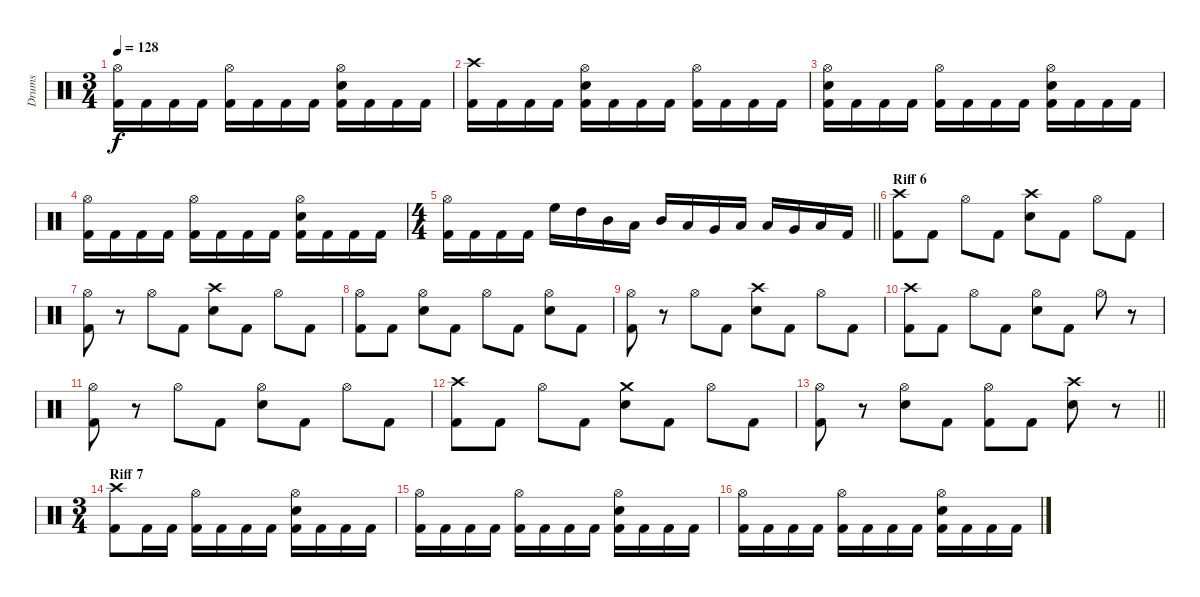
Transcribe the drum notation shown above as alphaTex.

\track ("Drums" "Drums") {instrument percussion}
\staff {score}
\articulation defaults
\ts (3 4)
\tempo 128
\clef neutral
\ks c
("Hi-Hat (open)" "Kick (hit) 2").16{dy f} "Kick (hit) 2".16 "Kick (hit) 2".16 "Kick (hit) 2".16 ("Hi-Hat (open)" "Kick (hit) 2").16 "Kick (hit) 2".16 "Kick (hit) 2".16 "Kick (hit) 2".16 ("Hi-Hat (open)" "Electric Snare (hit)" "Kick (hit) 2").16 "Kick (hit) 2".16 "Kick (hit) 2".16 "Kick (hit) 2".16 |
("Crash high (hit)" "Kick (hit) 2").16 "Kick (hit) 2".16 "Kick (hit) 2".16 "Kick (hit) 2".16 ("Hi-Hat (open)" "Electric Snare (hit)" "Kick (hit) 2").16 "Kick (hit) 2".16 "Kick (hit) 2".16 "Kick (hit) 2".16 ("Hi-Hat (open)" "Kick (hit) 2").16 "Kick (hit) 2".16 "Kick (hit) 2".16 "Kick (hit) 2".16 |
("Hi-Hat (open)" "Electric Snare (hit)" "Kick (hit) 2").16 "Kick (hit) 2".16 "Kick (hit) 2".16 "Kick (hit) 2".16 ("Hi-Hat (open)" "Kick (hit) 2").16 "Kick (hit) 2".16 "Kick (hit) 2".16 "Kick (hit) 2".16 ("Hi-Hat (open)" "Electric Snare (hit)" "Kick (hit) 2").16 "Kick (hit) 2".16 "Kick (hit) 2".16 "Kick (hit) 2".16 |
("Hi-Hat (open)" "Kick (hit) 2").16 "Kick (hit) 2".16 "Kick (hit) 2".16 "Kick (hit) 2".16 ("Hi-Hat (open)" "Kick (hit) 2").16 "Kick (hit) 2".16 "Kick (hit) 2".16 "Kick (hit) 2".16 ("Hi-Hat (open)" "Electric Snare (hit)" "Kick (hit) 2").16 "Kick (hit) 2".16 "Kick (hit) 2".16 "Kick (hit) 2".16 |
\ts (4 4)
\barLineRight lightlight
("Hi-Hat (open)" "Kick (hit) 2").16 "Kick (hit) 2".16 "Kick (hit) 2".16 "Kick (hit) 2".16 "High Floor Tom (hit)".16 "High Tom (hit)".16 "Mid Tom (hit)".16 "Low Tom (hit)".16 "Mid Tom (hit)".16 "Low Tom (hit)".16 "Very Low Tom (hit)".16 "Low Floor Tom (hit)".16 "Low Tom (hit)".16 "Very Low Tom (hit)".16 "Low Floor Tom (hit)".16 "Kick (hit) 2".16 |
\section ("" "Riff 6")
("Crash high (hit)" "Kick (hit) 2").8 "Kick (hit) 2".8 "Hi-Hat (open)".8 "Kick (hit) 2".8 ("Crash high (hit)" "Electric Snare (hit)").8 "Kick (hit) 2".8 "Hi-Hat (open)".8 "Kick (hit) 2".8 |
("Hi-Hat (open)" "Kick (hit) 2").8 r.8 "Hi-Hat (open)".8 "Kick (hit) 2".8 ("Crash high (hit)" "Electric Snare (hit)").8 "Kick (hit) 2".8 "Hi-Hat (open)".8 "Kick (hit) 2".8 |
("Hi-Hat (open)" "Kick (hit) 2").8 "Kick (hit) 2".8 ("Hi-Hat (open)" "Electric Snare (hit)").8 "Kick (hit) 2".8 "Hi-Hat (open)".8 "Kick (hit) 2".8 ("Hi-Hat (open)" "Electric Snare (hit)").8 "Kick (hit) 2".8 |
("Hi-Hat (open)" "Kick (hit) 2").8 r.8 "Hi-Hat (open)".8 "Kick (hit) 2".8 ("Crash high (hit)" "Electric Snare (hit)").8 "Kick (hit) 2".8 "Hi-Hat (open)".8 "Kick (hit) 2".8 |
("Crash high (hit)" "Kick (hit) 2").8 "Kick (hit) 2".8 "Hi-Hat (open)".8 "Kick (hit) 2".8 ("Hi-Hat (open)" "Electric Snare (hit)").8 "Kick (hit) 2".8 "Hi-Hat (open)".8 r.8 |
("Hi-Hat (open)" "Kick (hit) 2").8 r.8 "Hi-Hat (open)".8 "Kick (hit) 2".8 ("Hi-Hat (open)" "Electric Snare (hit)").8 "Kick (hit) 2".8 "Hi-Hat (open)".8 "Kick (hit) 2".8 |
("Crash high (hit)" "Kick (hit) 2").8 "Kick (hit) 2".8 "Hi-Hat (open)".8 "Kick (hit) 2".8 ("Crash medium (hit)" "Electric Snare (hit)").8 "Kick (hit) 2".8 "Hi-Hat (open)".8 "Kick (hit) 2".8 |
\barLineRight lightlight
("Hi-Hat (open)" "Kick (hit) 2").8 r.8 ("Hi-Hat (open)" "Electric Snare (hit)").8 "Kick (hit) 2".8 ("Hi-Hat (open)" "Kick (hit) 2").8 "Kick (hit) 2".8 ("Crash high (hit)" "Electric Snare (hit)").8 r.8 |
\ts (3 4)
\section ("" "Riff 7")
("Crash high (hit)" "Kick (hit) 2").8 "Kick (hit) 2".16 "Kick (hit) 2".16 ("Hi-Hat (open)" "Kick (hit) 2").16 "Kick (hit) 2".16 "Kick (hit) 2".16 "Kick (hit) 2".16 ("Hi-Hat (open)" "Electric Snare (hit)" "Kick (hit) 2").16 "Kick (hit) 2".16 "Kick (hit) 2".16 "Kick (hit) 2".16 |
("Hi-Hat (open)" "Kick (hit) 2").16 "Kick (hit) 2".16 "Kick (hit) 2".16 "Kick (hit) 2".16 ("Hi-Hat (open)" "Kick (hit) 2").16 "Kick (hit) 2".16 "Kick (hit) 2".16 "Kick (hit) 2".16 ("Hi-Hat (open)" "Electric Snare (hit)" "Kick (hit) 2").16 "Kick (hit) 2".16 "Kick (hit) 2".16 "Kick (hit) 2".16 |
("Hi-Hat (open)" "Kick (hit) 2").16 "Kick (hit) 2".16 "Kick (hit) 2".16 "Kick (hit) 2".16 ("Hi-Hat (open)" "Kick (hit) 2").16 "Kick (hit) 2".16 "Kick (hit) 2".16 "Kick (hit) 2".16 ("Hi-Hat (open)" "Electric Snare (hit)" "Kick (hit) 2").16 "Kick (hit) 2".16 "Kick (hit) 2".16 "Kick (hit) 2".16
